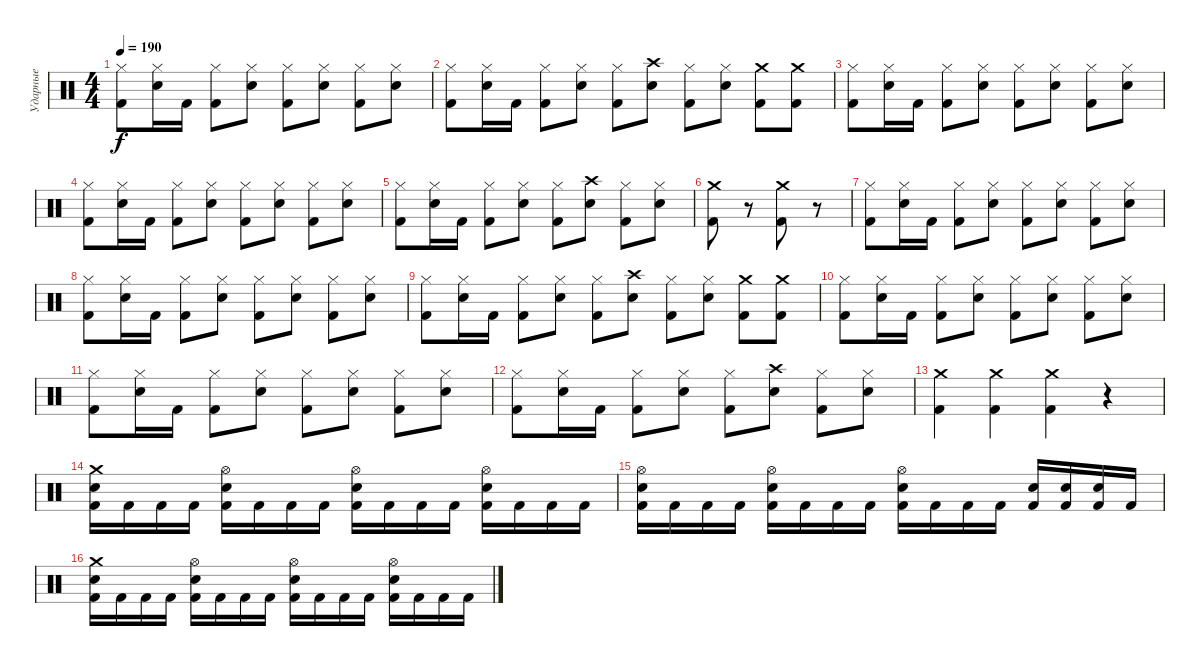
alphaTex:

\track ("Ударные" "Ударные") {instrument percussion}
\staff {score}
\articulation defaults
\ts (4 4)
\tempo 190
\clef neutral
\ks c
("Kick (hit) 2" "Hi-Hat (closed)").8{dy f} ("Snare (hit) 2" "Hi-Hat (closed)").16 "Kick (hit) 2".16 ("Kick (hit) 2" "Hi-Hat (closed)").8 ("Snare (hit) 2" "Hi-Hat (closed)").8 ("Kick (hit) 2" "Hi-Hat (closed)").8 ("Snare (hit) 2" "Hi-Hat (closed)").8 ("Kick (hit) 2" "Hi-Hat (closed)").8 ("Snare (hit) 2" "Hi-Hat (closed)").8 |
("Kick (hit) 2" "Hi-Hat (closed)").8 ("Snare (hit) 2" "Hi-Hat (closed)").16 "Kick (hit) 2".16 ("Kick (hit) 2" "Hi-Hat (closed)").8 ("Snare (hit) 2" "Hi-Hat (closed)").8 ("Kick (hit) 2" "Hi-Hat (closed)").8 ("Snare (hit) 2" "Crash high (hit)").8 ("Kick (hit) 2" "Hi-Hat (closed)").8 ("Snare (hit) 2" "Hi-Hat (closed)").8 ("Kick (hit) 2" "Crash medium (hit)").8 ("Kick (hit) 2" "Crash medium (hit)").8 |
("Kick (hit) 2" "Hi-Hat (closed)").8 ("Snare (hit) 2" "Hi-Hat (closed)").16 "Kick (hit) 2".16 ("Kick (hit) 2" "Hi-Hat (closed)").8 ("Snare (hit) 2" "Hi-Hat (closed)").8 ("Kick (hit) 2" "Hi-Hat (closed)").8 ("Snare (hit) 2" "Hi-Hat (closed)").8 ("Kick (hit) 2" "Hi-Hat (closed)").8 ("Snare (hit) 2" "Hi-Hat (closed)").8 |
("Kick (hit) 2" "Hi-Hat (closed)").8 ("Snare (hit) 2" "Hi-Hat (closed)").16 "Kick (hit) 2".16 ("Kick (hit) 2" "Hi-Hat (closed)").8 ("Snare (hit) 2" "Hi-Hat (closed)").8 ("Kick (hit) 2" "Hi-Hat (closed)").8 ("Snare (hit) 2" "Hi-Hat (closed)").8 ("Kick (hit) 2" "Hi-Hat (closed)").8 ("Snare (hit) 2" "Hi-Hat (closed)").8 |
("Kick (hit) 2" "Hi-Hat (closed)").8 ("Snare (hit) 2" "Hi-Hat (closed)").16 "Kick (hit) 2".16 ("Kick (hit) 2" "Hi-Hat (closed)").8 ("Snare (hit) 2" "Hi-Hat (closed)").8 ("Kick (hit) 2" "Hi-Hat (closed)").8 ("Snare (hit) 2" "Crash high (hit)").8 ("Kick (hit) 2" "Hi-Hat (closed)").8 ("Snare (hit) 2" "Hi-Hat (closed)").8 |
("Kick (hit) 2" "Crash medium (hit)").8 r.8 ("Kick (hit) 2" "Crash medium (hit)").8 r.8 |
("Kick (hit) 2" "Hi-Hat (closed)").8 ("Snare (hit) 2" "Hi-Hat (closed)").16 "Kick (hit) 2".16 ("Kick (hit) 2" "Hi-Hat (closed)").8 ("Snare (hit) 2" "Hi-Hat (closed)").8 ("Kick (hit) 2" "Hi-Hat (closed)").8 ("Snare (hit) 2" "Hi-Hat (closed)").8 ("Kick (hit) 2" "Hi-Hat (closed)").8 ("Snare (hit) 2" "Hi-Hat (closed)").8 |
("Kick (hit) 2" "Hi-Hat (closed)").8 ("Snare (hit) 2" "Hi-Hat (closed)").16 "Kick (hit) 2".16 ("Kick (hit) 2" "Hi-Hat (closed)").8 ("Snare (hit) 2" "Hi-Hat (closed)").8 ("Kick (hit) 2" "Hi-Hat (closed)").8 ("Snare (hit) 2" "Hi-Hat (closed)").8 ("Kick (hit) 2" "Hi-Hat (closed)").8 ("Snare (hit) 2" "Hi-Hat (closed)").8 |
("Kick (hit) 2" "Hi-Hat (closed)").8 ("Snare (hit) 2" "Hi-Hat (closed)").16 "Kick (hit) 2".16 ("Kick (hit) 2" "Hi-Hat (closed)").8 ("Snare (hit) 2" "Hi-Hat (closed)").8 ("Kick (hit) 2" "Hi-Hat (closed)").8 ("Snare (hit) 2" "Crash high (hit)").8 ("Kick (hit) 2" "Hi-Hat (closed)").8 ("Snare (hit) 2" "Hi-Hat (closed)").8 ("Kick (hit) 2" "Crash medium (hit)").8 ("Kick (hit) 2" "Crash medium (hit)").8 |
("Kick (hit) 2" "Hi-Hat (closed)").8 ("Snare (hit) 2" "Hi-Hat (closed)").16 "Kick (hit) 2".16 ("Kick (hit) 2" "Hi-Hat (closed)").8 ("Snare (hit) 2" "Hi-Hat (closed)").8 ("Kick (hit) 2" "Hi-Hat (closed)").8 ("Snare (hit) 2" "Hi-Hat (closed)").8 ("Kick (hit) 2" "Hi-Hat (closed)").8 ("Snare (hit) 2" "Hi-Hat (closed)").8 |
("Kick (hit) 2" "Hi-Hat (closed)").8 ("Snare (hit) 2" "Hi-Hat (closed)").16 "Kick (hit) 2".16 ("Kick (hit) 2" "Hi-Hat (closed)").8 ("Snare (hit) 2" "Hi-Hat (closed)").8 ("Kick (hit) 2" "Hi-Hat (closed)").8 ("Snare (hit) 2" "Hi-Hat (closed)").8 ("Kick (hit) 2" "Hi-Hat (closed)").8 ("Snare (hit) 2" "Hi-Hat (closed)").8 |
("Kick (hit) 2" "Hi-Hat (closed)").8 ("Snare (hit) 2" "Hi-Hat (closed)").16 "Kick (hit) 2".16 ("Kick (hit) 2" "Hi-Hat (closed)").8 ("Snare (hit) 2" "Hi-Hat (closed)").8 ("Kick (hit) 2" "Hi-Hat (closed)").8 ("Snare (hit) 2" "Crash high (hit)").8 ("Kick (hit) 2" "Hi-Hat (closed)").8 ("Snare (hit) 2" "Hi-Hat (closed)").8 |
("Crash medium (hit)" "Kick (hit) 2").4 ("Crash medium (hit)" "Kick (hit) 2").4 ("Crash medium (hit)" "Kick (hit) 2").4 r.4 |
("Kick (hit) 2" "Snare (hit) 2" "Crash medium (hit)").16 "Kick (hit) 2".16 "Kick (hit) 2".16 "Kick (hit) 2".16 ("Kick (hit) 2" "Snare (hit) 2" "Hi-Hat (open)").16 "Kick (hit) 2".16 "Kick (hit) 2".16 "Kick (hit) 2".16 ("Kick (hit) 2" "Snare (hit) 2" "Hi-Hat (open)").16 "Kick (hit) 2".16 "Kick (hit) 2".16 "Kick (hit) 2".16 ("Kick (hit) 2" "Snare (hit) 2" "Hi-Hat (open)").16 "Kick (hit) 2".16 "Kick (hit) 2".16 "Kick (hit) 2".16 |
("Kick (hit) 2" "Snare (hit) 2" "Hi-Hat (open)").16 "Kick (hit) 2".16 "Kick (hit) 2".16 "Kick (hit) 2".16 ("Kick (hit) 2" "Snare (hit) 2" "Hi-Hat (open)").16 "Kick (hit) 2".16 "Kick (hit) 2".16 "Kick (hit) 2".16 ("Kick (hit) 2" "Snare (hit) 2" "Hi-Hat (open)").16 "Kick (hit) 2".16 "Kick (hit) 2".16 "Kick (hit) 2".16 ("Kick (hit) 2" "Snare (hit) 2").16 ("Kick (hit) 2" "Snare (hit) 2").16 ("Kick (hit) 2" "Snare (hit) 2").16 "Kick (hit) 2".16 |
("Kick (hit) 2" "Snare (hit) 2" "Crash medium (hit)").16 "Kick (hit) 2".16 "Kick (hit) 2".16 "Kick (hit) 2".16 ("Kick (hit) 2" "Snare (hit) 2" "Hi-Hat (open)").16 "Kick (hit) 2".16 "Kick (hit) 2".16 "Kick (hit) 2".16 ("Kick (hit) 2" "Snare (hit) 2" "Hi-Hat (open)").16 "Kick (hit) 2".16 "Kick (hit) 2".16 "Kick (hit) 2".16 ("Kick (hit) 2" "Snare (hit) 2" "Hi-Hat (open)").16 "Kick (hit) 2".16 "Kick (hit) 2".16 "Kick (hit) 2".16
